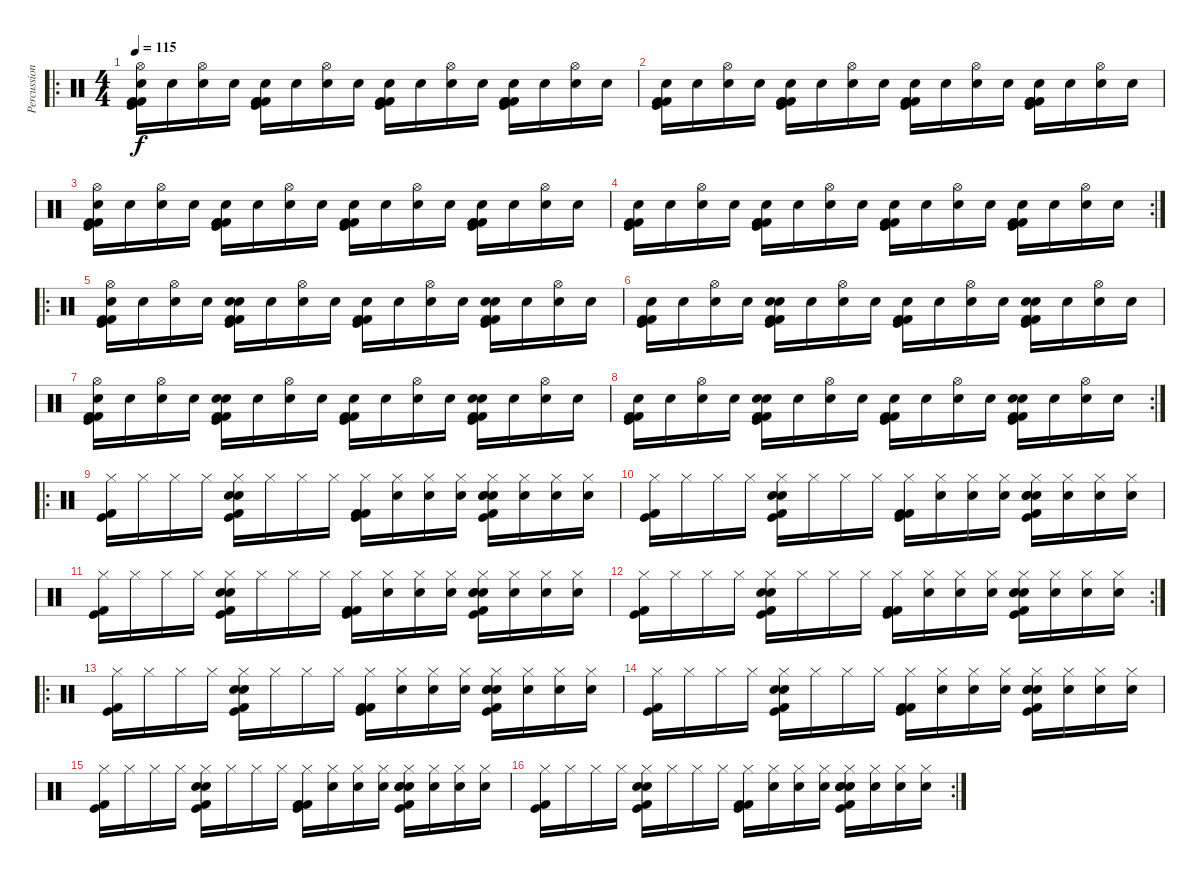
\track ("Percussion" "Percussion") {instrument percussion}
\staff {score}
\articulation defaults
\ro
\ts (4 4)
\tempo 115
\clef neutral
\ks c
("Kick (hit) 2" "Hi-Hat (open)" "Kick (hit) 2" "Hand Clap (hit)" "Kick (hit)").16{dy f} "Hand Clap (hit)".16 ("Hi-Hat (open)" "Hand Clap (hit)").16 "Hand Clap (hit)".16 ("Kick (hit) 2" "Kick (hit) 2" "Kick (hit) 2" "Hand Clap (hit)" "Kick (hit)").16 "Hand Clap (hit)".16 ("Hi-Hat (open)" "Hand Clap (hit)").16 "Hand Clap (hit)".16 ("Kick (hit) 2" "Kick (hit) 2" "Hand Clap (hit)" "Kick (hit)").16 "Hand Clap (hit)".16 ("Hi-Hat (open)" "Hand Clap (hit)").16 "Hand Clap (hit)".16 ("Kick (hit) 2" "Kick (hit) 2" "Kick (hit) 2" "Hand Clap (hit)" "Kick (hit)").16 "Hand Clap (hit)".16 ("Hi-Hat (open)" "Hand Clap (hit)").16 "Hand Clap (hit)".16 |
("Kick (hit) 2" "Kick (hit) 2" "Hand Clap (hit)" "Kick (hit)").16 "Hand Clap (hit)".16 ("Hi-Hat (open)" "Hand Clap (hit)").16 "Hand Clap (hit)".16 ("Kick (hit) 2" "Kick (hit) 2" "Kick (hit) 2" "Hand Clap (hit)" "Kick (hit)").16 "Hand Clap (hit)".16 ("Hi-Hat (open)" "Hand Clap (hit)").16 "Hand Clap (hit)".16 ("Kick (hit) 2" "Kick (hit) 2" "Hand Clap (hit)" "Kick (hit)").16 "Hand Clap (hit)".16 ("Hi-Hat (open)" "Hand Clap (hit)").16 "Hand Clap (hit)".16 ("Kick (hit) 2" "Kick (hit) 2" "Kick (hit) 2" "Hand Clap (hit)" "Kick (hit)").16 "Hand Clap (hit)".16 ("Hi-Hat (open)" "Hand Clap (hit)").16 "Hand Clap (hit)".16 |
("Kick (hit) 2" "Hi-Hat (open)" "Kick (hit) 2" "Hand Clap (hit)" "Kick (hit)").16 "Hand Clap (hit)".16 ("Hi-Hat (open)" "Hand Clap (hit)").16 "Hand Clap (hit)".16 ("Kick (hit) 2" "Kick (hit) 2" "Kick (hit) 2" "Hand Clap (hit)" "Kick (hit)").16 "Hand Clap (hit)".16 ("Hi-Hat (open)" "Hand Clap (hit)").16 "Hand Clap (hit)".16 ("Kick (hit) 2" "Kick (hit) 2" "Hand Clap (hit)" "Kick (hit)").16 "Hand Clap (hit)".16 ("Hi-Hat (open)" "Hand Clap (hit)").16 "Hand Clap (hit)".16 ("Kick (hit) 2" "Kick (hit) 2" "Kick (hit) 2" "Hand Clap (hit)" "Kick (hit)").16 "Hand Clap (hit)".16 ("Hi-Hat (open)" "Hand Clap (hit)").16 "Hand Clap (hit)".16 |
\rc 2
("Kick (hit) 2" "Kick (hit) 2" "Hand Clap (hit)" "Kick (hit)").16 "Hand Clap (hit)".16 ("Hi-Hat (open)" "Hand Clap (hit)").16 "Hand Clap (hit)".16 ("Kick (hit) 2" "Kick (hit) 2" "Kick (hit) 2" "Hand Clap (hit)" "Kick (hit)").16 "Hand Clap (hit)".16 ("Hi-Hat (open)" "Hand Clap (hit)").16 "Hand Clap (hit)".16 ("Kick (hit) 2" "Kick (hit) 2" "Hand Clap (hit)" "Kick (hit)").16 "Hand Clap (hit)".16 ("Hi-Hat (open)" "Hand Clap (hit)").16 "Hand Clap (hit)".16 ("Kick (hit) 2" "Kick (hit) 2" "Kick (hit) 2" "Hand Clap (hit)" "Kick (hit)").16 "Hand Clap (hit)".16 ("Hi-Hat (open)" "Hand Clap (hit)").16 "Hand Clap (hit)".16 |
\ro
("Kick (hit) 2" "Hi-Hat (open)" "Kick (hit) 2" "Hand Clap (hit)" "Kick (hit)").16 "Hand Clap (hit)".16 ("Hi-Hat (open)" "Hand Clap (hit)").16 "Hand Clap (hit)".16 ("Snare (hit) 2" "Kick (hit) 2" "Kick (hit) 2" "Hand Clap (hit)" "Kick (hit)").16 "Hand Clap (hit)".16 ("Hi-Hat (open)" "Hand Clap (hit)").16 "Hand Clap (hit)".16 ("Kick (hit) 2" "Kick (hit) 2" "Hand Clap (hit)" "Kick (hit)").16 "Hand Clap (hit)".16 ("Hi-Hat (open)" "Hand Clap (hit)").16 "Hand Clap (hit)".16 ("Snare (hit) 2" "Kick (hit) 2" "Kick (hit) 2" "Hand Clap (hit)" "Kick (hit)").16 "Hand Clap (hit)".16 ("Hi-Hat (open)" "Hand Clap (hit)").16 "Hand Clap (hit)".16 |
("Kick (hit) 2" "Kick (hit) 2" "Hand Clap (hit)" "Kick (hit)").16 "Hand Clap (hit)".16 ("Hi-Hat (open)" "Hand Clap (hit)").16 "Hand Clap (hit)".16 ("Snare (hit) 2" "Kick (hit) 2" "Kick (hit) 2" "Hand Clap (hit)" "Kick (hit)").16 "Hand Clap (hit)".16 ("Hi-Hat (open)" "Hand Clap (hit)").16 "Hand Clap (hit)".16 ("Kick (hit) 2" "Kick (hit) 2" "Hand Clap (hit)" "Kick (hit)").16 "Hand Clap (hit)".16 ("Hi-Hat (open)" "Hand Clap (hit)").16 "Hand Clap (hit)".16 ("Snare (hit) 2" "Kick (hit) 2" "Kick (hit) 2" "Hand Clap (hit)" "Kick (hit)").16 "Hand Clap (hit)".16 ("Hi-Hat (open)" "Hand Clap (hit)").16 "Hand Clap (hit)".16 |
("Kick (hit) 2" "Hi-Hat (open)" "Kick (hit) 2" "Hand Clap (hit)" "Kick (hit)").16 "Hand Clap (hit)".16 ("Hi-Hat (open)" "Hand Clap (hit)").16 "Hand Clap (hit)".16 ("Snare (hit) 2" "Kick (hit) 2" "Kick (hit) 2" "Hand Clap (hit)" "Kick (hit)").16 "Hand Clap (hit)".16 ("Hi-Hat (open)" "Hand Clap (hit)").16 "Hand Clap (hit)".16 ("Kick (hit) 2" "Kick (hit) 2" "Hand Clap (hit)" "Kick (hit)").16 "Hand Clap (hit)".16 ("Hi-Hat (open)" "Hand Clap (hit)").16 "Hand Clap (hit)".16 ("Snare (hit) 2" "Kick (hit) 2" "Kick (hit) 2" "Hand Clap (hit)" "Kick (hit)").16 "Hand Clap (hit)".16 ("Hi-Hat (open)" "Hand Clap (hit)").16 "Hand Clap (hit)".16 |
\rc 2
("Kick (hit) 2" "Kick (hit) 2" "Hand Clap (hit)" "Kick (hit)").16 "Hand Clap (hit)".16 ("Hi-Hat (open)" "Hand Clap (hit)").16 "Hand Clap (hit)".16 ("Snare (hit) 2" "Kick (hit) 2" "Kick (hit) 2" "Hand Clap (hit)" "Kick (hit)").16 "Hand Clap (hit)".16 ("Hi-Hat (open)" "Hand Clap (hit)").16 "Hand Clap (hit)".16 ("Kick (hit) 2" "Kick (hit) 2" "Hand Clap (hit)" "Kick (hit)").16 "Hand Clap (hit)".16 ("Hi-Hat (open)" "Hand Clap (hit)").16 "Hand Clap (hit)".16 ("Snare (hit) 2" "Kick (hit) 2" "Kick (hit) 2" "Hand Clap (hit)" "Kick (hit)").16 "Hand Clap (hit)".16 ("Hi-Hat (open)" "Hand Clap (hit)").16 "Hand Clap (hit)".16 |
\ro
("Hi-Hat (closed)" "Kick (hit) 2" "Kick (hit)").16 "Hi-Hat (closed)".16 "Hi-Hat (closed)".16 "Hi-Hat (closed)".16 ("Hi-Hat (closed)" "Snare (hit) 2" "Electric Snare (hit)" "Kick (hit) 2" "Kick (hit)").16 "Hi-Hat (closed)".16 "Hi-Hat (closed)".16 "Hi-Hat (closed)".16 ("Hi-Hat (closed)" "Kick (hit) 2" "Kick (hit) 2" "Kick (hit)").16 ("Hi-Hat (closed)" "Hand Clap (hit)").16 ("Hi-Hat (closed)" "Hand Clap (hit)").16 ("Hi-Hat (closed)" "Hand Clap (hit)").16 ("Hi-Hat (closed)" "Snare (hit) 2" "Electric Snare (hit)" "Kick (hit) 2" "Hand Clap (hit)" "Kick (hit)").16 ("Hi-Hat (closed)" "Hand Clap (hit)").16 ("Hi-Hat (closed)" "Hand Clap (hit)").16 ("Hi-Hat (closed)" "Hand Clap (hit)").16 |
("Hi-Hat (closed)" "Kick (hit) 2" "Kick (hit)").16 "Hi-Hat (closed)".16 "Hi-Hat (closed)".16 "Hi-Hat (closed)".16 ("Hi-Hat (closed)" "Snare (hit) 2" "Electric Snare (hit)" "Kick (hit) 2" "Kick (hit)").16 "Hi-Hat (closed)".16 "Hi-Hat (closed)".16 "Hi-Hat (closed)".16 ("Hi-Hat (closed)" "Kick (hit) 2" "Kick (hit) 2" "Kick (hit)").16 ("Hi-Hat (closed)" "Hand Clap (hit)").16 ("Hi-Hat (closed)" "Hand Clap (hit)").16 ("Hi-Hat (closed)" "Hand Clap (hit)").16 ("Hi-Hat (closed)" "Snare (hit) 2" "Electric Snare (hit)" "Kick (hit) 2" "Hand Clap (hit)" "Kick (hit)").16 ("Hi-Hat (closed)" "Hand Clap (hit)").16 ("Hi-Hat (closed)" "Hand Clap (hit)").16 ("Hi-Hat (closed)" "Hand Clap (hit)").16 |
("Hi-Hat (closed)" "Kick (hit) 2" "Kick (hit)").16 "Hi-Hat (closed)".16 "Hi-Hat (closed)".16 "Hi-Hat (closed)".16 ("Hi-Hat (closed)" "Snare (hit) 2" "Electric Snare (hit)" "Kick (hit) 2" "Kick (hit)").16 "Hi-Hat (closed)".16 "Hi-Hat (closed)".16 "Hi-Hat (closed)".16 ("Hi-Hat (closed)" "Kick (hit) 2" "Kick (hit) 2" "Kick (hit)").16 ("Hi-Hat (closed)" "Hand Clap (hit)").16 ("Hi-Hat (closed)" "Hand Clap (hit)").16 ("Hi-Hat (closed)" "Hand Clap (hit)").16 ("Hi-Hat (closed)" "Snare (hit) 2" "Electric Snare (hit)" "Kick (hit) 2" "Hand Clap (hit)" "Kick (hit)").16 ("Hi-Hat (closed)" "Hand Clap (hit)").16 ("Hi-Hat (closed)" "Hand Clap (hit)").16 ("Hi-Hat (closed)" "Hand Clap (hit)").16 |
\rc 2
("Hi-Hat (closed)" "Kick (hit) 2" "Kick (hit)").16 "Hi-Hat (closed)".16 "Hi-Hat (closed)".16 "Hi-Hat (closed)".16 ("Hi-Hat (closed)" "Snare (hit) 2" "Electric Snare (hit)" "Kick (hit) 2" "Kick (hit)").16 "Hi-Hat (closed)".16 "Hi-Hat (closed)".16 "Hi-Hat (closed)".16 ("Hi-Hat (closed)" "Kick (hit) 2" "Kick (hit) 2" "Kick (hit)").16 ("Hi-Hat (closed)" "Hand Clap (hit)").16 ("Hi-Hat (closed)" "Hand Clap (hit)").16 ("Hi-Hat (closed)" "Hand Clap (hit)").16 ("Hi-Hat (closed)" "Snare (hit) 2" "Electric Snare (hit)" "Kick (hit) 2" "Hand Clap (hit)" "Kick (hit)").16 ("Hi-Hat (closed)" "Hand Clap (hit)").16 ("Hi-Hat (closed)" "Hand Clap (hit)").16 ("Hi-Hat (closed)" "Hand Clap (hit)").16 |
\ro
("Hi-Hat (closed)" "Kick (hit) 2" "Kick (hit)").16 "Hi-Hat (closed)".16 "Hi-Hat (closed)".16 "Hi-Hat (closed)".16 ("Hi-Hat (closed)" "Snare (hit) 2" "Electric Snare (hit)" "Kick (hit) 2" "Kick (hit)").16 "Hi-Hat (closed)".16 "Hi-Hat (closed)".16 "Hi-Hat (closed)".16 ("Hi-Hat (closed)" "Kick (hit) 2" "Kick (hit) 2" "Kick (hit)").16 ("Hi-Hat (closed)" "Hand Clap (hit)").16 ("Hi-Hat (closed)" "Hand Clap (hit)").16 ("Hi-Hat (closed)" "Hand Clap (hit)").16 ("Hi-Hat (closed)" "Snare (hit) 2" "Electric Snare (hit)" "Kick (hit) 2" "Hand Clap (hit)" "Kick (hit)").16 ("Hi-Hat (closed)" "Hand Clap (hit)").16 ("Hi-Hat (closed)" "Hand Clap (hit)").16 ("Hi-Hat (closed)" "Hand Clap (hit)").16 |
("Hi-Hat (closed)" "Kick (hit) 2" "Kick (hit)").16 "Hi-Hat (closed)".16 "Hi-Hat (closed)".16 "Hi-Hat (closed)".16 ("Hi-Hat (closed)" "Snare (hit) 2" "Electric Snare (hit)" "Kick (hit) 2" "Kick (hit)").16 "Hi-Hat (closed)".16 "Hi-Hat (closed)".16 "Hi-Hat (closed)".16 ("Hi-Hat (closed)" "Kick (hit) 2" "Kick (hit) 2" "Kick (hit)").16 ("Hi-Hat (closed)" "Hand Clap (hit)").16 ("Hi-Hat (closed)" "Hand Clap (hit)").16 ("Hi-Hat (closed)" "Hand Clap (hit)").16 ("Hi-Hat (closed)" "Snare (hit) 2" "Electric Snare (hit)" "Kick (hit) 2" "Hand Clap (hit)" "Kick (hit)").16 ("Hi-Hat (closed)" "Hand Clap (hit)").16 ("Hi-Hat (closed)" "Hand Clap (hit)").16 ("Hi-Hat (closed)" "Hand Clap (hit)").16 |
("Hi-Hat (closed)" "Kick (hit) 2" "Kick (hit)").16 "Hi-Hat (closed)".16 "Hi-Hat (closed)".16 "Hi-Hat (closed)".16 ("Hi-Hat (closed)" "Snare (hit) 2" "Electric Snare (hit)" "Kick (hit) 2" "Kick (hit)").16 "Hi-Hat (closed)".16 "Hi-Hat (closed)".16 "Hi-Hat (closed)".16 ("Hi-Hat (closed)" "Kick (hit) 2" "Kick (hit) 2" "Kick (hit)").16 ("Hi-Hat (closed)" "Hand Clap (hit)").16 ("Hi-Hat (closed)" "Hand Clap (hit)").16 ("Hi-Hat (closed)" "Hand Clap (hit)").16 ("Hi-Hat (closed)" "Snare (hit) 2" "Electric Snare (hit)" "Kick (hit) 2" "Hand Clap (hit)" "Kick (hit)").16 ("Hi-Hat (closed)" "Hand Clap (hit)").16 ("Hi-Hat (closed)" "Hand Clap (hit)").16 ("Hi-Hat (closed)" "Hand Clap (hit)").16 |
\rc 2
("Hi-Hat (closed)" "Kick (hit) 2" "Kick (hit)").16 "Hi-Hat (closed)".16 "Hi-Hat (closed)".16 "Hi-Hat (closed)".16 ("Hi-Hat (closed)" "Snare (hit) 2" "Electric Snare (hit)" "Kick (hit) 2" "Kick (hit)").16 "Hi-Hat (closed)".16 "Hi-Hat (closed)".16 "Hi-Hat (closed)".16 ("Hi-Hat (closed)" "Kick (hit) 2" "Kick (hit) 2" "Kick (hit)").16 ("Hi-Hat (closed)" "Hand Clap (hit)").16 ("Hi-Hat (closed)" "Hand Clap (hit)").16 ("Hi-Hat (closed)" "Hand Clap (hit)").16 ("Hi-Hat (closed)" "Snare (hit) 2" "Electric Snare (hit)" "Kick (hit) 2" "Hand Clap (hit)" "Kick (hit)").16 ("Hi-Hat (closed)" "Hand Clap (hit)").16 ("Hi-Hat (closed)" "Hand Clap (hit)").16 ("Hi-Hat (closed)" "Hand Clap (hit)").16
